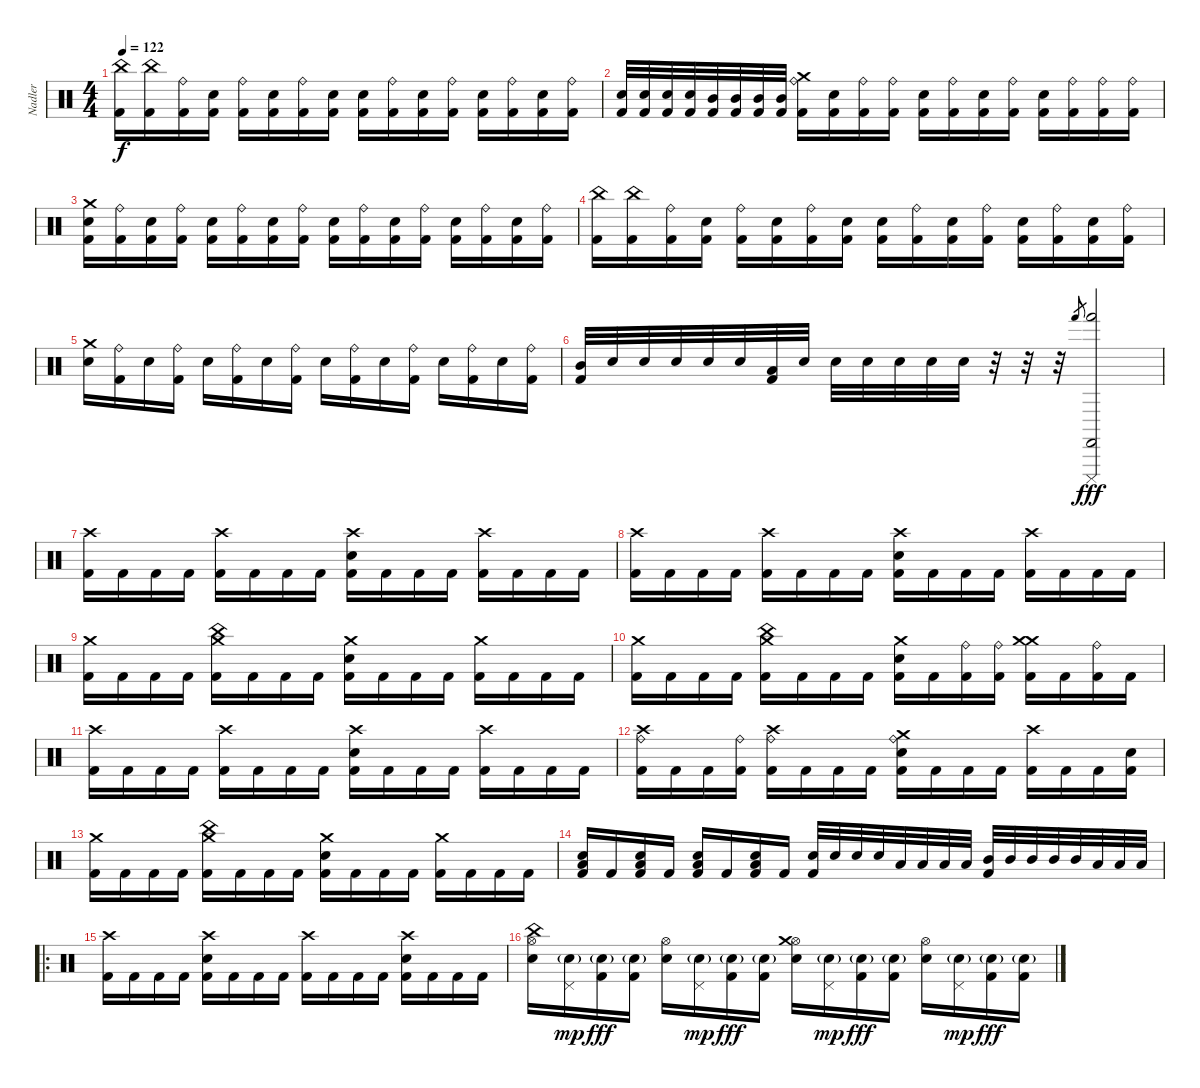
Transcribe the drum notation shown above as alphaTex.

\track ("Nadler" "Nadler") {mute instrument percussion}
\staff {score}
\articulation defaults
\ts (4 4)
\tempo 122
\clef neutral
\ks c
("China (hit)" "Kick (hit) 2").16{dy f} ("China (hit)" "Kick (hit) 2").16 ("Ride (bell)" "Kick (hit) 2").16 ("Electric Snare (hit)" "Kick (hit) 2").16 ("Ride (bell)" "Kick (hit) 2").16 ("Electric Snare (hit)" "Kick (hit) 2").16 ("Ride (bell)" "Kick (hit) 2").16 ("Electric Snare (hit)" "Kick (hit) 2").16 ("Electric Snare (hit)" "Kick (hit) 2").16 ("Ride (bell)" "Kick (hit) 2").16 ("Electric Snare (hit)" "Kick (hit) 2").16 ("Ride (bell)" "Kick (hit) 2").16 ("Electric Snare (hit)" "Kick (hit) 2").16 ("Ride (bell)" "Kick (hit) 2").16 ("Electric Snare (hit)" "Kick (hit) 2").16 ("Ride (bell)" "Kick (hit) 2").16 |
("Electric Snare (hit)" "Kick (hit) 2").32 ("Electric Snare (hit)" "Kick (hit) 2").32 ("Electric Snare (hit)" "Kick (hit) 2").32 ("Electric Snare (hit)" "Kick (hit) 2").32 ("Mid Tom (hit)" "Kick (hit) 2").32 ("Mid Tom (hit)" "Kick (hit) 2").32 ("Mid Tom (hit)" "Kick (hit) 2").32 ("Mid Tom (hit)" "Kick (hit) 2").32 ("Crash medium (hit)" "Ride (bell)" "Kick (hit) 2").16 ("Electric Snare (hit)" "Kick (hit) 2").16 ("Ride (bell)" "Kick (hit) 2").16 ("Ride (bell)" "Kick (hit) 2").16 ("Electric Snare (hit)" "Kick (hit) 2").16 ("Ride (bell)" "Kick (hit) 2").16 ("Electric Snare (hit)" "Kick (hit) 2").16 ("Ride (bell)" "Kick (hit) 2").16 ("Electric Snare (hit)" "Kick (hit) 2").16 ("Ride (bell)" "Kick (hit) 2").16 ("Ride (bell)" "Kick (hit) 2").16 ("Ride (bell)" "Kick (hit) 2").16 |
("Crash medium (hit)" "Electric Snare (hit)" "Kick (hit) 2").16 ("Ride (bell)" "Kick (hit) 2").16 ("Electric Snare (hit)" "Kick (hit) 2").16 ("Ride (bell)" "Kick (hit) 2").16 ("Electric Snare (hit)" "Kick (hit) 2").16 ("Ride (bell)" "Kick (hit) 2").16 ("Electric Snare (hit)" "Kick (hit) 2").16 ("Ride (bell)" "Kick (hit) 2").16 ("Electric Snare (hit)" "Kick (hit) 2").16 ("Ride (bell)" "Kick (hit) 2").16 ("Electric Snare (hit)" "Kick (hit) 2").16 ("Ride (bell)" "Kick (hit) 2").16 ("Electric Snare (hit)" "Kick (hit) 2").16 ("Ride (bell)" "Kick (hit) 2").16 ("Electric Snare (hit)" "Kick (hit) 2").16 ("Ride (bell)" "Kick (hit) 2").16 |
("China (hit)" "Kick (hit) 2").16 ("China (hit)" "Kick (hit) 2").16 ("Ride (bell)" "Kick (hit) 2").16 ("Electric Snare (hit)" "Kick (hit) 2").16 ("Ride (bell)" "Kick (hit) 2").16 ("Electric Snare (hit)" "Kick (hit) 2").16 ("Ride (bell)" "Kick (hit) 2").16 ("Electric Snare (hit)" "Kick (hit) 2").16 ("Electric Snare (hit)" "Kick (hit) 2").16 ("Ride (bell)" "Kick (hit) 2").16 ("Electric Snare (hit)" "Kick (hit) 2").16 ("Ride (bell)" "Kick (hit) 2").16 ("Electric Snare (hit)" "Kick (hit) 2").16 ("Ride (bell)" "Kick (hit) 2").16 ("Electric Snare (hit)" "Kick (hit) 2").16 ("Ride (bell)" "Kick (hit) 2").16 |
("Crash medium (hit)" "Electric Snare (hit)").16 ("Ride (bell)" "Kick (hit) 2").16 "Electric Snare (hit)".16 ("Ride (bell)" "Kick (hit) 2").16 "Electric Snare (hit)".16 ("Ride (bell)" "Kick (hit) 2").16 "Electric Snare (hit)".16 ("Ride (bell)" "Kick (hit) 2").16 "Electric Snare (hit)".16 ("Ride (bell)" "Kick (hit) 2").16 "Electric Snare (hit)".16 ("Ride (bell)" "Kick (hit) 2").16 "Electric Snare (hit)".16 ("Ride (bell)" "Kick (hit) 2").16 "Electric Snare (hit)".16 ("Ride (bell)" "Kick (hit) 2").16 |
("Mid Tom (hit)" "Kick (hit) 2").32 "Snare (hit) 2".32 "Snare (hit) 2".32 "Snare (hit) 2".32 "Snare (hit) 2".32 "Snare (hit) 2".32 ("Low Tom (hit)" "Kick (hit) 2").32 "Snare (hit) 2".32 "Snare (hit) 2".32 "Snare (hit) 2".32 "Snare (hit) 2".32 "Snare (hit) 2".32 "Snare (hit) 2".32 r.32 r.32 r.32 "Hand (hit)".8{gr} ("Castanets (hit)" "Hand (hit)" "Cuica (mute)").2{dy fff} |
("Crash high (hit)" "Kick (hit) 2").16 "Kick (hit) 2".16 "Kick (hit) 2".16 "Kick (hit) 2".16 ("Crash high (hit)" "Kick (hit) 2").16 "Kick (hit) 2".16 "Kick (hit) 2".16 "Kick (hit) 2".16 ("Crash high (hit)" "Electric Snare (hit)" "Kick (hit) 2").16 "Kick (hit) 2".16 "Kick (hit) 2".16 "Kick (hit) 2".16 ("Crash high (hit)" "Kick (hit) 2").16 "Kick (hit) 2".16 "Kick (hit) 2".16 "Kick (hit) 2".16 |
("Crash high (hit)" "Kick (hit) 2").16 "Kick (hit) 2".16 "Kick (hit) 2".16 "Kick (hit) 2".16 ("Crash high (hit)" "Kick (hit) 2").16 "Kick (hit) 2".16 "Kick (hit) 2".16 "Kick (hit) 2".16 ("Crash high (hit)" "Electric Snare (hit)" "Kick (hit) 2").16 "Kick (hit) 2".16 "Kick (hit) 2".16 "Kick (hit) 2".16 ("Crash high (hit)" "Kick (hit) 2").16 "Kick (hit) 2".16 "Kick (hit) 2".16 "Kick (hit) 2".16 |
("Crash medium (hit)" "Kick (hit) 2").16 "Kick (hit) 2".16 "Kick (hit) 2".16 "Kick (hit) 2".16 ("Crash medium (hit)" "China (hit)" "Kick (hit) 2").16 "Kick (hit) 2".16 "Kick (hit) 2".16 "Kick (hit) 2".16 ("Crash medium (hit)" "Electric Snare (hit)" "Kick (hit) 2").16 "Kick (hit) 2".16 "Kick (hit) 2".16 "Kick (hit) 2".16 ("Crash medium (hit)" "Kick (hit) 2").16 "Kick (hit) 2".16 "Kick (hit) 2".16 "Kick (hit) 2".16 |
("Crash medium (hit)" "Kick (hit) 2").16 "Kick (hit) 2".16 "Kick (hit) 2".16 "Kick (hit) 2".16 ("Crash medium (hit)" "China (hit)" "Kick (hit) 2").16 "Kick (hit) 2".16 "Kick (hit) 2".16 "Kick (hit) 2".16 ("Crash medium (hit)" "Electric Snare (hit)" "Kick (hit) 2").16 "Kick (hit) 2".16 ("Ride (bell)" "Kick (hit) 2").16 ("Ride (bell)" "Kick (hit) 2").16 ("Crash medium (hit)" "Crash medium (hit)" "Kick (hit) 2").16 "Kick (hit) 2".16 ("Ride (bell)" "Kick (hit) 2").16 "Kick (hit) 2".16 |
("Crash high (hit)" "Kick (hit) 2").16 "Kick (hit) 2".16 "Kick (hit) 2".16 "Kick (hit) 2".16 ("Crash high (hit)" "Kick (hit) 2").16 "Kick (hit) 2".16 "Kick (hit) 2".16 "Kick (hit) 2".16 ("Crash high (hit)" "Electric Snare (hit)" "Kick (hit) 2").16 "Kick (hit) 2".16 "Kick (hit) 2".16 "Kick (hit) 2".16 ("Crash high (hit)" "Kick (hit) 2").16 "Kick (hit) 2".16 "Kick (hit) 2".16 "Kick (hit) 2".16 |
("Crash high (hit)" "Ride (bell)" "Kick (hit) 2").16 "Kick (hit) 2".16 "Kick (hit) 2".16 ("Ride (bell)" "Kick (hit) 2").16 ("Crash high (hit)" "Ride (bell)" "Kick (hit) 2").16 "Kick (hit) 2".16 "Kick (hit) 2".16 "Kick (hit) 2".16 ("Crash medium (hit)" "Ride (bell)" "Electric Snare (hit)" "Kick (hit) 2").16 "Kick (hit) 2".16 "Kick (hit) 2".16 "Kick (hit) 2".16 ("Crash high (hit)" "Kick (hit) 2").16 "Kick (hit) 2".16 "Kick (hit) 2".16 ("Electric Snare (hit)" "Kick (hit) 2").16 |
("Crash medium (hit)" "Kick (hit) 2").16 "Kick (hit) 2".16 "Kick (hit) 2".16 "Kick (hit) 2".16 ("Crash medium (hit)" "China (hit)" "Kick (hit) 2").16 "Kick (hit) 2".16 "Kick (hit) 2".16 "Kick (hit) 2".16 ("Crash medium (hit)" "Electric Snare (hit)" "Kick (hit) 2").16 "Kick (hit) 2".16 "Kick (hit) 2".16 "Kick (hit) 2".16 ("Crash medium (hit)" "Kick (hit) 2").16 "Kick (hit) 2".16 "Kick (hit) 2".16 "Kick (hit) 2".16 |
("Low Floor Tom (hit)" "Electric Snare (hit)" "Kick (hit) 2").16 "Kick (hit) 2".16 ("Low Floor Tom (hit)" "Electric Snare (hit)" "Kick (hit) 2").16 "Kick (hit) 2".16 ("Low Floor Tom (hit)" "Electric Snare (hit)" "Kick (hit) 2").16 "Kick (hit) 2".16 ("Low Floor Tom (hit)" "Electric Snare (hit)" "Kick (hit) 2").16 "Kick (hit) 2".16 ("Electric Snare (hit)" "Kick (hit) 2").32 "Electric Snare (hit)".32 "Electric Snare (hit)".32 "Electric Snare (hit)".32 "Low Floor Tom (hit)".32 "Low Floor Tom (hit)".32 "Low Floor Tom (hit)".32 "Low Floor Tom (hit)".32 ("Mid Tom (hit)" "Kick (hit) 2").32 "Mid Tom (hit)".32 "Mid Tom (hit)".32 "Mid Tom (hit)".32 "Mid Tom (hit)".32 "Low Tom (hit)".32 "Low Tom (hit)".32 "Low Tom (hit)".32 |
\ro
("Crash high (hit)" "Kick (hit) 2").16 "Kick (hit) 2".16 "Kick (hit) 2".16 "Kick (hit) 2".16 ("Crash high (hit)" "Electric Snare (hit)" "Kick (hit) 2").16 "Kick (hit) 2".16 "Kick (hit) 2".16 "Kick (hit) 2".16 ("Crash high (hit)" "Kick (hit) 2").16 "Kick (hit) 2".16 "Kick (hit) 2".16 "Kick (hit) 2".16 ("Crash high (hit)" "Electric Snare (hit)" "Kick (hit) 2").16 "Kick (hit) 2".16 "Kick (hit) 2".16 "Kick (hit) 2".16 |
("Hi-Hat (open)" "China (hit)" "Electric Snare (hit)").16{balance 0} ("Pedal Hi-Hat (hit)" "Electric Snare (hit)"{g}).16{dy mp} ("Electric Snare (hit)"{g} "Kick (hit) 2").16{dy fff} ("Electric Snare (hit)"{g} "Kick (hit) 2").16 ("Hi-Hat (open)" "Electric Snare (hit)").16 ("Pedal Hi-Hat (hit)" "Electric Snare (hit)"{g}).16{dy mp} ("Electric Snare (hit)"{g} "Kick (hit) 2").16{dy fff} ("Electric Snare (hit)"{g} "Kick (hit) 2").16 ("Hi-Hat (open)" "Crash medium (hit)" "Electric Snare (hit)").16{balance 16} ("Pedal Hi-Hat (hit)" "Electric Snare (hit)"{g}).16{dy mp} ("Electric Snare (hit)"{g} "Kick (hit) 2").16{dy fff} ("Electric Snare (hit)"{g} "Kick (hit) 2").16 ("Hi-Hat (open)" "Electric Snare (hit)").16 ("Pedal Hi-Hat (hit)" "Electric Snare (hit)"{g}).16{dy mp} ("Electric Snare (hit)"{g} "Kick (hit) 2").16{dy fff} ("Electric Snare (hit)"{g} "Kick (hit) 2").16
